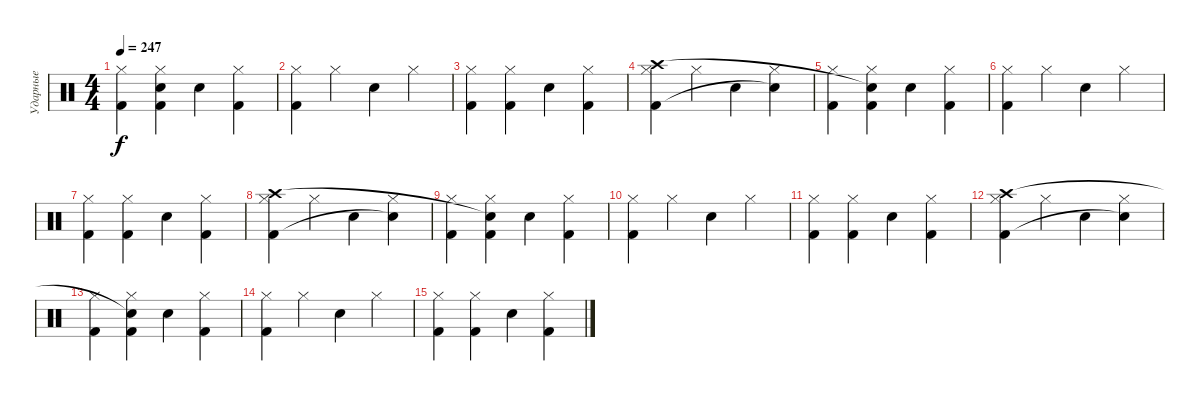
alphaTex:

\track ("Ударные" "Ударные") {instrument percussion}
\staff {score}
\articulation defaults
\ts (4 4)
\tempo 247
\clef neutral
\ks c
("Hi-Hat (closed)" "Kick (hit) 2").4{dy f} ("Hi-Hat (closed)" "Kick (hit) 2" "Snare (hit)"{t}).4 "Snare (hit) 2".4 ("Hi-Hat (closed)" "Kick (hit) 2").4 |
("Hi-Hat (closed)" "Kick (hit) 2").4{volume 8} "Hi-Hat (closed)".4 "Snare (hit) 2".4 "Hi-Hat (closed)".4 |
("Hi-Hat (closed)" "Kick (hit) 2").4 ("Hi-Hat (closed)" "Kick (hit) 2").4 "Snare (hit) 2".4 ("Hi-Hat (closed)" "Kick (hit) 2").4 |
("Hi-Hat (closed)" "Kick (hit) 2" "Crash high (hit)").4 "Hi-Hat (closed)".4 "Snare (hit) 2".4 ("Hi-Hat (closed)" "Snare (hit)"{t}).4 |
("Hi-Hat (closed)" "Kick (hit) 2").4 ("Hi-Hat (closed)" "Kick (hit) 2" "Snare (hit)"{t}).4 "Snare (hit) 2".4 ("Hi-Hat (closed)" "Kick (hit) 2").4 |
("Hi-Hat (closed)" "Kick (hit) 2").4{volume 7} "Hi-Hat (closed)".4 "Snare (hit) 2".4 "Hi-Hat (closed)".4 |
("Hi-Hat (closed)" "Kick (hit) 2").4 ("Hi-Hat (closed)" "Kick (hit) 2").4 "Snare (hit) 2".4 ("Hi-Hat (closed)" "Kick (hit) 2").4 |
("Hi-Hat (closed)" "Kick (hit) 2" "Crash high (hit)").4{volume 6} "Hi-Hat (closed)".4 "Snare (hit) 2".4 ("Hi-Hat (closed)" "Snare (hit)"{t}).4 |
("Hi-Hat (closed)" "Kick (hit) 2").4 ("Hi-Hat (closed)" "Kick (hit) 2" "Snare (hit)"{t}).4 "Snare (hit) 2".4 ("Hi-Hat (closed)" "Kick (hit) 2").4 |
("Hi-Hat (closed)" "Kick (hit) 2").4 "Hi-Hat (closed)".4 "Snare (hit) 2".4 "Hi-Hat (closed)".4 |
("Hi-Hat (closed)" "Kick (hit) 2").4 ("Hi-Hat (closed)" "Kick (hit) 2").4 "Snare (hit) 2".4 ("Hi-Hat (closed)" "Kick (hit) 2").4 |
("Hi-Hat (closed)" "Kick (hit) 2" "Crash high (hit)").4{volume 4} "Hi-Hat (closed)".4 "Snare (hit) 2".4 ("Hi-Hat (closed)" "Snare (hit)"{t}).4 |
("Hi-Hat (closed)" "Kick (hit) 2").4 ("Hi-Hat (closed)" "Kick (hit) 2" "Snare (hit)"{t}).4 "Snare (hit) 2".4 ("Hi-Hat (closed)" "Kick (hit) 2").4 |
("Hi-Hat (closed)" "Kick (hit) 2").4 "Hi-Hat (closed)".4 "Snare (hit) 2".4 "Hi-Hat (closed)".4 |
("Hi-Hat (closed)" "Kick (hit) 2").4 ("Hi-Hat (closed)" "Kick (hit) 2").4 "Snare (hit) 2".4 ("Hi-Hat (closed)" "Kick (hit) 2").4
